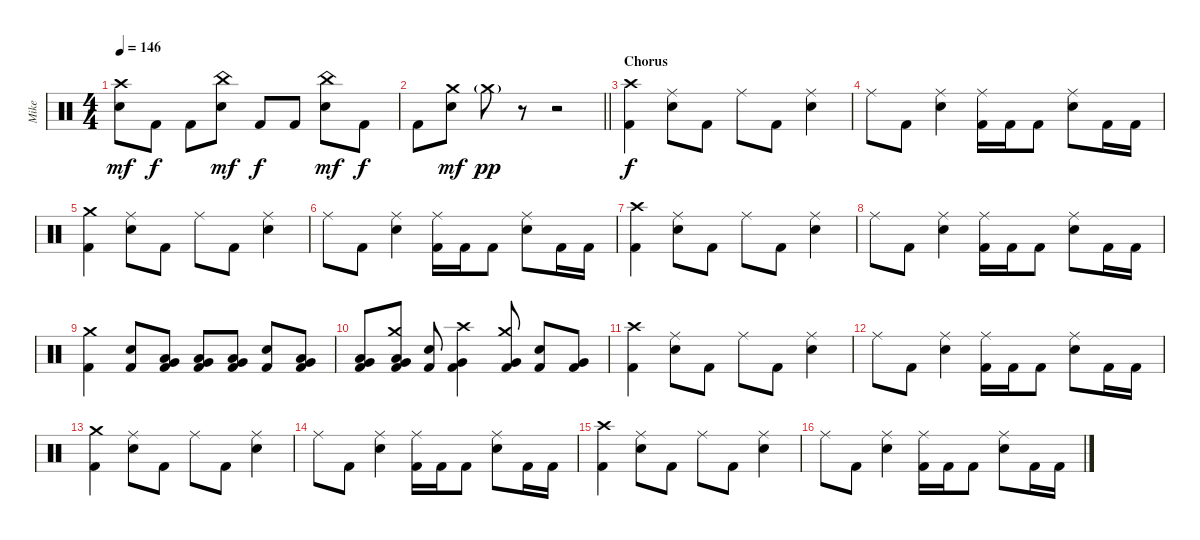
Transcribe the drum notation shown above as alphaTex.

\track ("Mike" "Mike") {instrument percussion}
\staff {score}
\articulation defaults
\ts (4 4)
\tempo 146
\clef neutral
\ks c
("Crash high (hit)" "Snare (hit) 2").8{dy mf} "Kick (hit) 2".8{dy f} "Kick (hit) 2".8 ("China (hit)" "Snare (hit) 2").8{dy mf} "Kick (hit) 2".8{dy f} "Kick (hit) 2".8 ("China (hit)" "Snare (hit) 2").8{dy mf} "Kick (hit) 2".8{dy f} |
\barLineRight lightlight "Kick (hit) 2".8
("Crash medium (hit)" "Snare (hit) 2").8{dy mf} "Crash medium (hit)"{g}.8{dy pp} r.8 r.2 |
\section ("" "Chorus")
("Crash high (hit)" "Kick (hit) 2").4{dy f} ("Snare (hit) 2" "Ride (middle)").8 "Kick (hit) 2".8 "Ride (middle)".8 "Kick (hit) 2".8 ("Snare (hit) 2" "Ride (middle)").4 |
"Ride (middle)".8 "Kick (hit) 2".8 ("Snare (hit) 2" "Ride (middle)").4 ("Ride (middle)" "Kick (hit) 2").16 "Kick (hit) 2".16 "Kick (hit) 2".8 ("Snare (hit) 2" "Ride (middle)").8 "Kick (hit) 2".16 "Kick (hit) 2".16 |
("Crash medium (hit)" "Kick (hit) 2").4 ("Snare (hit) 2" "Ride (middle)").8 "Kick (hit) 2".8 "Ride (middle)".8 "Kick (hit) 2".8 ("Snare (hit) 2" "Ride (middle)").4 |
"Ride (middle)".8 "Kick (hit) 2".8 ("Snare (hit) 2" "Ride (middle)").4 ("Ride (middle)" "Kick (hit) 2").16 "Kick (hit) 2".16 "Kick (hit) 2".8 ("Snare (hit) 2" "Ride (middle)").8 "Kick (hit) 2".16 "Kick (hit) 2".16 |
("Crash high (hit)" "Kick (hit) 2").4 ("Snare (hit) 2" "Ride (middle)").8 "Kick (hit) 2".8 "Ride (middle)".8 "Kick (hit) 2".8 ("Snare (hit) 2" "Ride (middle)").4 |
"Ride (middle)".8 "Kick (hit) 2".8 ("Snare (hit) 2" "Ride (middle)").4 ("Ride (middle)" "Kick (hit) 2").16 "Kick (hit) 2".16 "Kick (hit) 2".8 ("Snare (hit) 2" "Ride (middle)").8 "Kick (hit) 2".16 "Kick (hit) 2".16 |
("Crash medium (hit)" "Kick (hit) 2").4 ("Snare (hit) 2" "Kick (hit) 2").8 ("Very Low Tom (hit)" "Low Floor Tom (hit)" "Kick (hit) 2").8 ("Low Tom (hit)" "Very Low Tom (hit)" "Kick (hit) 2").8 ("Very Low Tom (hit)" "Low Floor Tom (hit)" "Kick (hit) 2").8 ("Snare (hit) 2" "Kick (hit) 2").8 ("Very Low Tom (hit)" "Low Floor Tom (hit)" "Kick (hit) 2").8 |
("Low Tom (hit)" "Very Low Tom (hit)" "Kick (hit) 2").8 ("Crash medium (hit)" "Very Low Tom (hit)" "Low Floor Tom (hit)" "Kick (hit) 2").8 ("Snare (hit) 2" "Kick (hit) 2").8 ("Crash high (hit)" "Very Low Tom (hit)" "Kick (hit) 2").4 ("Crash medium (hit)" "Very Low Tom (hit)" "Kick (hit) 2").8 ("Snare (hit) 2" "Kick (hit) 2").8 ("Very Low Tom (hit)" "Kick (hit) 2").8 |
("Crash high (hit)" "Kick (hit) 2").4 ("Snare (hit) 2" "Ride (middle)").8 "Kick (hit) 2".8 "Ride (middle)".8 "Kick (hit) 2".8 ("Snare (hit) 2" "Ride (middle)").4 |
"Ride (middle)".8 "Kick (hit) 2".8 ("Snare (hit) 2" "Ride (middle)").4 ("Ride (middle)" "Kick (hit) 2").16 "Kick (hit) 2".16 "Kick (hit) 2".8 ("Snare (hit) 2" "Ride (middle)").8 "Kick (hit) 2".16 "Kick (hit) 2".16 |
("Crash medium (hit)" "Kick (hit) 2").4 ("Snare (hit) 2" "Ride (middle)").8 "Kick (hit) 2".8 "Ride (middle)".8 "Kick (hit) 2".8 ("Snare (hit) 2" "Ride (middle)").4 |
"Ride (middle)".8 "Kick (hit) 2".8 ("Snare (hit) 2" "Ride (middle)").4 ("Ride (middle)" "Kick (hit) 2").16 "Kick (hit) 2".16 "Kick (hit) 2".8 ("Snare (hit) 2" "Ride (middle)").8 "Kick (hit) 2".16 "Kick (hit) 2".16 |
("Crash high (hit)" "Kick (hit) 2").4 ("Snare (hit) 2" "Ride (middle)").8 "Kick (hit) 2".8 "Ride (middle)".8 "Kick (hit) 2".8 ("Snare (hit) 2" "Ride (middle)").4 |
"Ride (middle)".8 "Kick (hit) 2".8 ("Snare (hit) 2" "Ride (middle)").4 ("Ride (middle)" "Kick (hit) 2").16 "Kick (hit) 2".16 "Kick (hit) 2".8 ("Snare (hit) 2" "Ride (middle)").8 "Kick (hit) 2".16 "Kick (hit) 2".16
